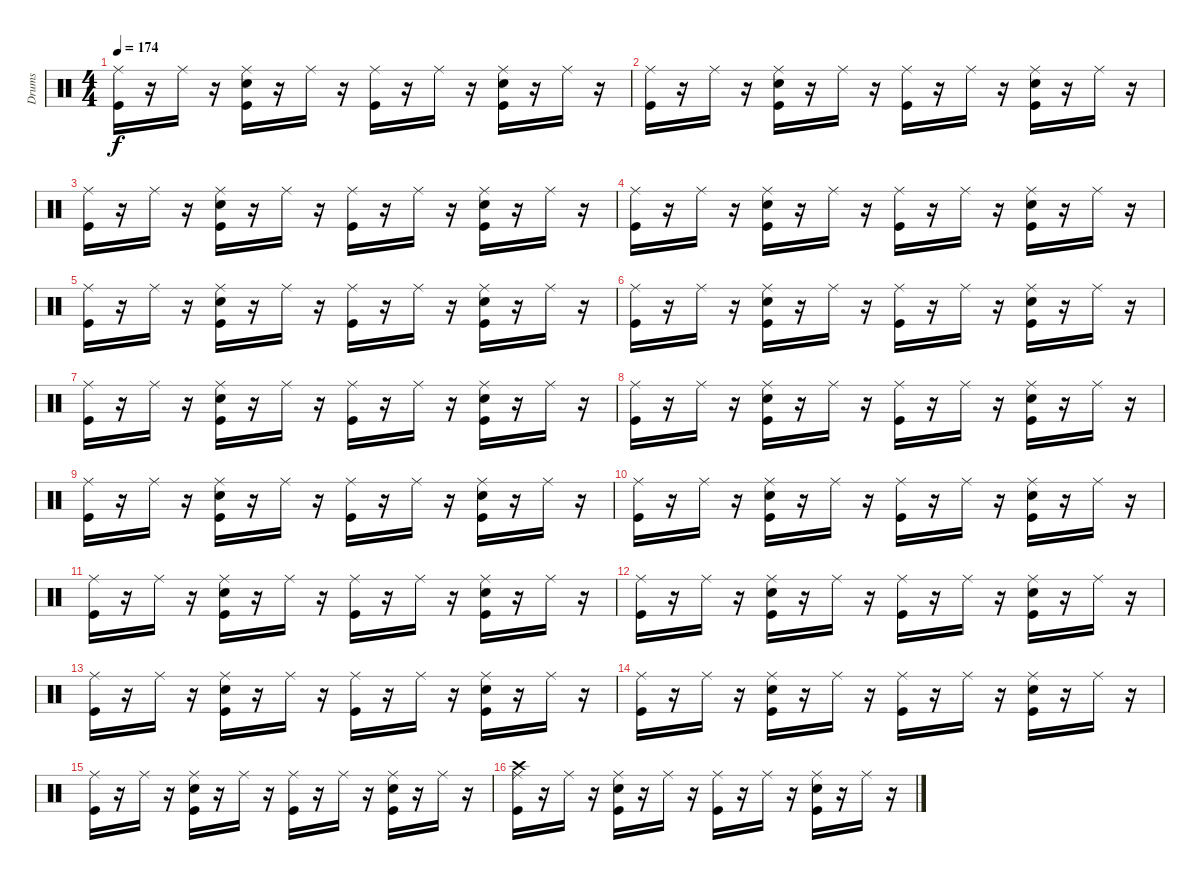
\track ("Drums" "Drums") {instrument percussion}
\staff {score}
\articulation defaults
\ts (4 4)
\tempo 174
\clef neutral
\ks c
("Kick (hit)" "Ride (middle)").16{dy f} r.16 "Ride (middle)".16 r.16 ("Kick (hit)" "Snare (hit) 2" "Ride (middle)").16 r.16 "Ride (middle)".16 r.16 ("Kick (hit)" "Ride (middle)").16 r.16 "Ride (middle)".16 r.16 ("Kick (hit)" "Snare (hit) 2" "Ride (middle)").16 r.16 "Ride (middle)".16 r.16 |
("Kick (hit)" "Ride (middle)").16 r.16 "Ride (middle)".16 r.16 ("Kick (hit)" "Snare (hit) 2" "Ride (middle)").16 r.16 "Ride (middle)".16 r.16 ("Kick (hit)" "Ride (middle)").16 r.16 "Ride (middle)".16 r.16 ("Kick (hit)" "Snare (hit) 2" "Ride (middle)").16 r.16 "Ride (middle)".16 r.16 |
("Kick (hit)" "Ride (middle)").16 r.16 "Ride (middle)".16 r.16 ("Kick (hit)" "Snare (hit) 2" "Ride (middle)").16 r.16 "Ride (middle)".16 r.16 ("Kick (hit)" "Ride (middle)").16 r.16 "Ride (middle)".16 r.16 ("Kick (hit)" "Snare (hit) 2" "Ride (middle)").16 r.16 "Ride (middle)".16 r.16 |
("Kick (hit)" "Ride (middle)").16 r.16 "Ride (middle)".16 r.16 ("Kick (hit)" "Snare (hit) 2" "Ride (middle)").16 r.16 "Ride (middle)".16 r.16 ("Kick (hit)" "Ride (middle)").16 r.16 "Ride (middle)".16 r.16 ("Kick (hit)" "Snare (hit) 2" "Ride (middle)").16 r.16 "Ride (middle)".16 r.16 |
("Kick (hit)" "Ride (middle)").16 r.16 "Ride (middle)".16 r.16 ("Kick (hit)" "Snare (hit) 2" "Ride (middle)").16 r.16 "Ride (middle)".16 r.16 ("Kick (hit)" "Ride (middle)").16 r.16 "Ride (middle)".16 r.16 ("Kick (hit)" "Snare (hit) 2" "Ride (middle)").16 r.16 "Ride (middle)".16 r.16 |
("Kick (hit)" "Ride (middle)").16 r.16 "Ride (middle)".16 r.16 ("Kick (hit)" "Snare (hit) 2" "Ride (middle)").16 r.16 "Ride (middle)".16 r.16 ("Kick (hit)" "Ride (middle)").16 r.16 "Ride (middle)".16 r.16 ("Kick (hit)" "Snare (hit) 2" "Ride (middle)").16 r.16 "Ride (middle)".16 r.16 |
("Kick (hit)" "Ride (middle)").16 r.16 "Ride (middle)".16 r.16 ("Kick (hit)" "Snare (hit) 2" "Ride (middle)").16 r.16 "Ride (middle)".16 r.16 ("Kick (hit)" "Ride (middle)").16 r.16 "Ride (middle)".16 r.16 ("Kick (hit)" "Snare (hit) 2" "Ride (middle)").16 r.16 "Ride (middle)".16 r.16 |
("Kick (hit)" "Ride (middle)").16 r.16 "Ride (middle)".16 r.16 ("Kick (hit)" "Snare (hit) 2" "Ride (middle)").16 r.16 "Ride (middle)".16 r.16 ("Kick (hit)" "Ride (middle)").16 r.16 "Ride (middle)".16 r.16 ("Kick (hit)" "Snare (hit) 2" "Ride (middle)").16 r.16 "Ride (middle)".16 r.16 |
("Kick (hit)" "Ride (middle)").16 r.16 "Ride (middle)".16 r.16 ("Kick (hit)" "Snare (hit) 2" "Ride (middle)").16 r.16 "Ride (middle)".16 r.16 ("Kick (hit)" "Ride (middle)").16 r.16 "Ride (middle)".16 r.16 ("Kick (hit)" "Snare (hit) 2" "Ride (middle)").16 r.16 "Ride (middle)".16 r.16 |
("Kick (hit)" "Ride (middle)").16 r.16 "Ride (middle)".16 r.16 ("Kick (hit)" "Snare (hit) 2" "Ride (middle)").16 r.16 "Ride (middle)".16 r.16 ("Kick (hit)" "Ride (middle)").16 r.16 "Ride (middle)".16 r.16 ("Kick (hit)" "Snare (hit) 2" "Ride (middle)").16 r.16 "Ride (middle)".16 r.16 |
("Kick (hit)" "Ride (middle)").16 r.16 "Ride (middle)".16 r.16 ("Kick (hit)" "Snare (hit) 2" "Ride (middle)").16 r.16 "Ride (middle)".16 r.16 ("Kick (hit)" "Ride (middle)").16 r.16 "Ride (middle)".16 r.16 ("Kick (hit)" "Snare (hit) 2" "Ride (middle)").16 r.16 "Ride (middle)".16 r.16 |
("Kick (hit)" "Ride (middle)").16 r.16 "Ride (middle)".16 r.16 ("Kick (hit)" "Snare (hit) 2" "Ride (middle)").16 r.16 "Ride (middle)".16 r.16 ("Kick (hit)" "Ride (middle)").16 r.16 "Ride (middle)".16 r.16 ("Kick (hit)" "Snare (hit) 2" "Ride (middle)").16 r.16 "Ride (middle)".16 r.16 |
("Kick (hit)" "Ride (middle)").16 r.16 "Ride (middle)".16 r.16 ("Kick (hit)" "Snare (hit) 2" "Ride (middle)").16 r.16 "Ride (middle)".16 r.16 ("Kick (hit)" "Ride (middle)").16 r.16 "Ride (middle)".16 r.16 ("Kick (hit)" "Snare (hit) 2" "Ride (middle)").16 r.16 "Ride (middle)".16 r.16 |
("Kick (hit)" "Ride (middle)").16 r.16 "Ride (middle)".16 r.16 ("Kick (hit)" "Snare (hit) 2" "Ride (middle)").16 r.16 "Ride (middle)".16 r.16 ("Kick (hit)" "Ride (middle)").16 r.16 "Ride (middle)".16 r.16 ("Kick (hit)" "Snare (hit) 2" "Ride (middle)").16 r.16 "Ride (middle)".16 r.16 |
("Kick (hit)" "Ride (middle)").16 r.16 "Ride (middle)".16 r.16 ("Kick (hit)" "Snare (hit) 2" "Ride (middle)").16 r.16 "Ride (middle)".16 r.16 ("Kick (hit)" "Ride (middle)").16 r.16 "Ride (middle)".16 r.16 ("Kick (hit)" "Snare (hit) 2" "Ride (middle)").16 r.16 "Ride (middle)".16 r.16 |
("Crash high (hit)" "Kick (hit)" "Ride (middle)").16 r.16 "Ride (middle)".16 r.16 ("Kick (hit)" "Snare (hit) 2" "Ride (middle)").16 r.16 "Ride (middle)".16 r.16 ("Kick (hit)" "Ride (middle)").16 r.16 "Ride (middle)".16 r.16 ("Kick (hit)" "Snare (hit) 2" "Ride (middle)").16 r.16 "Ride (middle)".16 r.16
